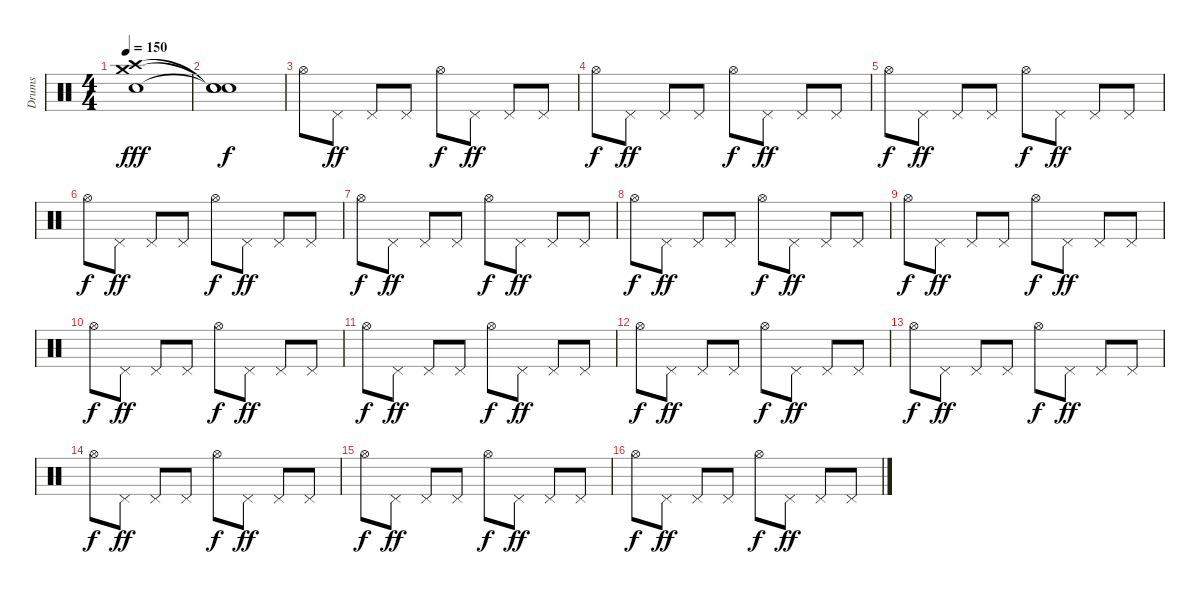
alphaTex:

\track ("Drums" "Drums") {instrument percussion}
\staff {score}
\articulation defaults
\ts (4 4)
\tempo 150
\clef neutral
\ks c
("Crash high (hit)" "Crash medium (hit)" "Electric Snare (hit)").1{dy fff} |
("Snare (hit)"{t} "Snare (hit)"{t} "Snare (hit)"{t}).1{dy f} |
"Hi-Hat (open)".8 "Pedal Hi-Hat (hit)".8{dy ff} "Pedal Hi-Hat (hit)".8 "Pedal Hi-Hat (hit)".8 "Hi-Hat (open)".8{dy f} "Pedal Hi-Hat (hit)".8{dy ff} "Pedal Hi-Hat (hit)".8 "Pedal Hi-Hat (hit)".8 |
"Hi-Hat (open)".8{dy f} "Pedal Hi-Hat (hit)".8{dy ff} "Pedal Hi-Hat (hit)".8 "Pedal Hi-Hat (hit)".8 "Hi-Hat (open)".8{dy f} "Pedal Hi-Hat (hit)".8{dy ff} "Pedal Hi-Hat (hit)".8 "Pedal Hi-Hat (hit)".8 |
"Hi-Hat (open)".8{dy f} "Pedal Hi-Hat (hit)".8{dy ff} "Pedal Hi-Hat (hit)".8 "Pedal Hi-Hat (hit)".8 "Hi-Hat (open)".8{dy f} "Pedal Hi-Hat (hit)".8{dy ff} "Pedal Hi-Hat (hit)".8 "Pedal Hi-Hat (hit)".8 |
"Hi-Hat (open)".8{dy f} "Pedal Hi-Hat (hit)".8{dy ff} "Pedal Hi-Hat (hit)".8 "Pedal Hi-Hat (hit)".8 "Hi-Hat (open)".8{dy f} "Pedal Hi-Hat (hit)".8{dy ff} "Pedal Hi-Hat (hit)".8 "Pedal Hi-Hat (hit)".8 |
"Hi-Hat (open)".8{dy f} "Pedal Hi-Hat (hit)".8{dy ff} "Pedal Hi-Hat (hit)".8 "Pedal Hi-Hat (hit)".8 "Hi-Hat (open)".8{dy f} "Pedal Hi-Hat (hit)".8{dy ff} "Pedal Hi-Hat (hit)".8 "Pedal Hi-Hat (hit)".8 |
"Hi-Hat (open)".8{dy f} "Pedal Hi-Hat (hit)".8{dy ff} "Pedal Hi-Hat (hit)".8 "Pedal Hi-Hat (hit)".8 "Hi-Hat (open)".8{dy f} "Pedal Hi-Hat (hit)".8{dy ff} "Pedal Hi-Hat (hit)".8 "Pedal Hi-Hat (hit)".8 |
"Hi-Hat (open)".8{dy f} "Pedal Hi-Hat (hit)".8{dy ff} "Pedal Hi-Hat (hit)".8 "Pedal Hi-Hat (hit)".8 "Hi-Hat (open)".8{dy f} "Pedal Hi-Hat (hit)".8{dy ff} "Pedal Hi-Hat (hit)".8 "Pedal Hi-Hat (hit)".8 |
"Hi-Hat (open)".8{dy f} "Pedal Hi-Hat (hit)".8{dy ff} "Pedal Hi-Hat (hit)".8 "Pedal Hi-Hat (hit)".8 "Hi-Hat (open)".8{dy f} "Pedal Hi-Hat (hit)".8{dy ff} "Pedal Hi-Hat (hit)".8 "Pedal Hi-Hat (hit)".8 |
"Hi-Hat (open)".8{dy f} "Pedal Hi-Hat (hit)".8{dy ff} "Pedal Hi-Hat (hit)".8 "Pedal Hi-Hat (hit)".8 "Hi-Hat (open)".8{dy f} "Pedal Hi-Hat (hit)".8{dy ff} "Pedal Hi-Hat (hit)".8 "Pedal Hi-Hat (hit)".8 |
"Hi-Hat (open)".8{dy f} "Pedal Hi-Hat (hit)".8{dy ff} "Pedal Hi-Hat (hit)".8 "Pedal Hi-Hat (hit)".8 "Hi-Hat (open)".8{dy f} "Pedal Hi-Hat (hit)".8{dy ff} "Pedal Hi-Hat (hit)".8 "Pedal Hi-Hat (hit)".8 |
"Hi-Hat (open)".8{dy f} "Pedal Hi-Hat (hit)".8{dy ff} "Pedal Hi-Hat (hit)".8 "Pedal Hi-Hat (hit)".8 "Hi-Hat (open)".8{dy f} "Pedal Hi-Hat (hit)".8{dy ff} "Pedal Hi-Hat (hit)".8 "Pedal Hi-Hat (hit)".8 |
"Hi-Hat (open)".8{dy f} "Pedal Hi-Hat (hit)".8{dy ff} "Pedal Hi-Hat (hit)".8 "Pedal Hi-Hat (hit)".8 "Hi-Hat (open)".8{dy f} "Pedal Hi-Hat (hit)".8{dy ff} "Pedal Hi-Hat (hit)".8 "Pedal Hi-Hat (hit)".8 |
"Hi-Hat (open)".8{dy f} "Pedal Hi-Hat (hit)".8{dy ff} "Pedal Hi-Hat (hit)".8 "Pedal Hi-Hat (hit)".8 "Hi-Hat (open)".8{dy f} "Pedal Hi-Hat (hit)".8{dy ff} "Pedal Hi-Hat (hit)".8 "Pedal Hi-Hat (hit)".8 |
"Hi-Hat (open)".8{dy f} "Pedal Hi-Hat (hit)".8{dy ff} "Pedal Hi-Hat (hit)".8 "Pedal Hi-Hat (hit)".8 "Hi-Hat (open)".8{dy f} "Pedal Hi-Hat (hit)".8{dy ff} "Pedal Hi-Hat (hit)".8 "Pedal Hi-Hat (hit)".8
